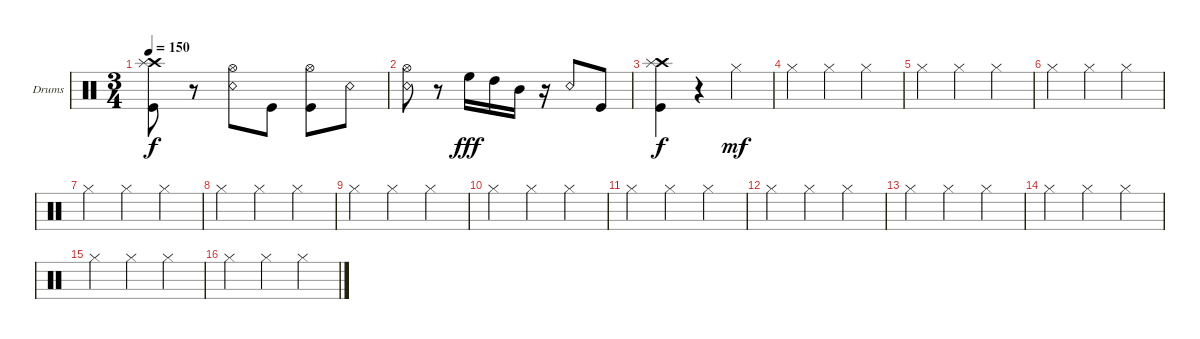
\defaultSystemsLayout 4
\bracketExtendMode groupsimilarinstruments
\firstSystemTrackNameOrientation horizontal
\otherSystemsTrackNameOrientation horizontal
\track ("Scott" "Drums") {mute instrument percussion}
\staff {score}
\articulation defaults
\ts (3 4)
\tempo 150
\clef neutral
\scale
0.333333
\ks c
("Kick (hit)" "Crash high (hit)" "Splash (hit)").8{dy f} r.8 ("Snare (rim shot)" "Hi-Hat (open)").8 "Kick (hit)".8 ("Kick (hit)" "Hi-Hat (open)").8 "Snare (rim shot)".8 |
\scale
0.333333 ("Snare (rim shot)" "Hi-Hat (open)").8 r.8 "High Floor Tom (hit)".16{dy fff} "High Tom (hit)".16 "Mid Tom (hit)".16 r.16 "Snare (rim shot)".8 "Kick (hit)".8 |
\scale
0.333333 ("Kick (hit)" "Crash high (hit)" "Splash (hit)").4{dy f} r.4 "Hi-Hat (closed)".4{dy mf} |
\scale
0.333333 "Hi-Hat (closed)".4 "Hi-Hat (closed)".4 "Hi-Hat (closed)".4 |
\scale
0.333333 "Hi-Hat (closed)".4 "Hi-Hat (closed)".4 "Hi-Hat (closed)".4 |
\scale
0.333333 "Hi-Hat (closed)".4 "Hi-Hat (closed)".4 "Hi-Hat (closed)".4 |
\scale
0.333333 "Hi-Hat (closed)".4 "Hi-Hat (closed)".4 "Hi-Hat (closed)".4 |
\scale
0.333333 "Hi-Hat (closed)".4 "Hi-Hat (closed)".4 "Hi-Hat (closed)".4 |
\scale
0.333333 "Hi-Hat (closed)".4 "Hi-Hat (closed)".4 "Hi-Hat (closed)".4 |
\scale
0.333333 "Hi-Hat (closed)".4 "Hi-Hat (closed)".4 "Hi-Hat (closed)".4 |
\scale
0.333333 "Hi-Hat (closed)".4 "Hi-Hat (closed)".4 "Hi-Hat (closed)".4 |
\scale
0.333333 "Hi-Hat (closed)".4 "Hi-Hat (closed)".4 "Hi-Hat (closed)".4 |
\scale
0.333333 "Hi-Hat (closed)".4 "Hi-Hat (closed)".4 "Hi-Hat (closed)".4 |
\scale
0.333333 "Hi-Hat (closed)".4 "Hi-Hat (closed)".4 "Hi-Hat (closed)".4 |
\scale
0.333333 "Hi-Hat (closed)".4 "Hi-Hat (closed)".4 "Hi-Hat (closed)".4 |
\scale
0.333333 "Hi-Hat (closed)".4 "Hi-Hat (closed)".4 "Hi-Hat (closed)".4
